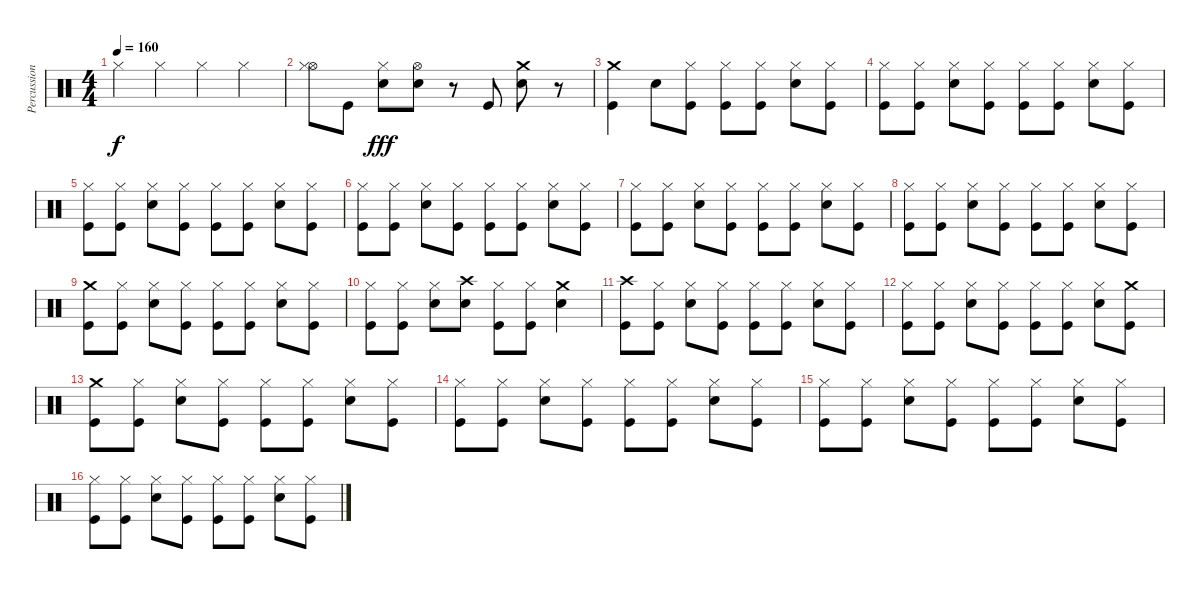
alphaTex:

\track ("Percussions" "Percussion") {instrument percussion}
\staff {score}
\articulation defaults
\ts (4 4)
\tempo 160
\clef neutral
\ks c "Hi-Hat (closed)".4{dy f} "Hi-Hat (closed)".4 "Hi-Hat (closed)".4 "Hi-Hat (closed)".4
|
("Hi-Hat (open)" "Hi-Hat (closed)").8 "Kick (hit)".8 ("Hi-Hat (closed)" "Electric Snare (hit)").8{dy fff} ("Hi-Hat (open)" "Electric Snare (hit)").8 r.8 "Kick (hit)".8 ("Crash medium (hit)" "Electric Snare (hit)").8 r.8 |
("Crash medium (hit)" "Kick (hit)").4 "Electric Snare (hit)".8 ("Hi-Hat (closed)" "Kick (hit)").8 ("Hi-Hat (closed)" "Kick (hit)").8 ("Hi-Hat (closed)" "Kick (hit)").8 ("Hi-Hat (closed)" "Electric Snare (hit)").8 ("Hi-Hat (closed)" "Kick (hit)").8 |
("Hi-Hat (closed)" "Kick (hit)").8 ("Hi-Hat (closed)" "Kick (hit)").8 ("Hi-Hat (closed)" "Electric Snare (hit)").8 ("Hi-Hat (closed)" "Kick (hit)").8 ("Hi-Hat (closed)" "Kick (hit)").8 ("Hi-Hat (closed)" "Kick (hit)").8 ("Hi-Hat (closed)" "Electric Snare (hit)").8 ("Hi-Hat (closed)" "Kick (hit)").8 |
("Hi-Hat (closed)" "Kick (hit)").8 ("Hi-Hat (closed)" "Kick (hit)").8 ("Hi-Hat (closed)" "Electric Snare (hit)").8 ("Hi-Hat (closed)" "Kick (hit)").8 ("Hi-Hat (closed)" "Kick (hit)").8 ("Hi-Hat (closed)" "Kick (hit)").8 ("Hi-Hat (closed)" "Electric Snare (hit)").8 ("Hi-Hat (closed)" "Kick (hit)").8 |
("Hi-Hat (closed)" "Kick (hit)").8 ("Hi-Hat (closed)" "Kick (hit)").8 ("Hi-Hat (closed)" "Electric Snare (hit)").8 ("Hi-Hat (closed)" "Kick (hit)").8 ("Hi-Hat (closed)" "Kick (hit)").8 ("Hi-Hat (closed)" "Kick (hit)").8 ("Hi-Hat (closed)" "Electric Snare (hit)").8 ("Hi-Hat (closed)" "Kick (hit)").8 |
("Hi-Hat (closed)" "Kick (hit)").8 ("Hi-Hat (closed)" "Kick (hit)").8 ("Hi-Hat (closed)" "Electric Snare (hit)").8 ("Hi-Hat (closed)" "Kick (hit)").8 ("Hi-Hat (closed)" "Kick (hit)").8 ("Hi-Hat (closed)" "Kick (hit)").8 ("Hi-Hat (closed)" "Electric Snare (hit)").8 ("Hi-Hat (closed)" "Kick (hit)").8 |
("Hi-Hat (closed)" "Kick (hit)").8 ("Hi-Hat (closed)" "Kick (hit)").8 ("Hi-Hat (closed)" "Electric Snare (hit)").8 ("Hi-Hat (closed)" "Kick (hit)").8 ("Hi-Hat (closed)" "Kick (hit)").8 ("Hi-Hat (closed)" "Kick (hit)").8 ("Hi-Hat (closed)" "Electric Snare (hit)").8 ("Hi-Hat (closed)" "Kick (hit)").8 |
("Crash medium (hit)" "Kick (hit)").8 ("Hi-Hat (closed)" "Kick (hit)").8 ("Hi-Hat (closed)" "Electric Snare (hit)").8 ("Hi-Hat (closed)" "Kick (hit)").8 ("Hi-Hat (closed)" "Kick (hit)").8 ("Hi-Hat (closed)" "Kick (hit)").8 ("Hi-Hat (closed)" "Electric Snare (hit)").8 ("Hi-Hat (closed)" "Kick (hit)").8 |
("Hi-Hat (closed)" "Kick (hit)").8 ("Hi-Hat (closed)" "Kick (hit)").8 ("Hi-Hat (closed)" "Electric Snare (hit)").8 ("Crash high (hit)" "Electric Snare (hit)").8 ("Hi-Hat (closed)" "Kick (hit)").8 ("Hi-Hat (closed)" "Kick (hit)").8 ("Crash medium (hit)" "Electric Snare (hit)").4 |
("Crash high (hit)" "Kick (hit)").8 ("Hi-Hat (closed)" "Kick (hit)").8 ("Hi-Hat (closed)" "Electric Snare (hit)").8 ("Hi-Hat (closed)" "Kick (hit)").8 ("Hi-Hat (closed)" "Kick (hit)").8 ("Hi-Hat (closed)" "Kick (hit)").8 ("Hi-Hat (closed)" "Electric Snare (hit)").8 ("Hi-Hat (closed)" "Kick (hit)").8 |
("Hi-Hat (closed)" "Kick (hit)").8 ("Hi-Hat (closed)" "Kick (hit)").8 ("Hi-Hat (closed)" "Electric Snare (hit)").8 ("Hi-Hat (closed)" "Kick (hit)").8 ("Hi-Hat (closed)" "Kick (hit)").8 ("Hi-Hat (closed)" "Kick (hit)").8 ("Hi-Hat (closed)" "Electric Snare (hit)").8 ("Crash medium (hit)" "Kick (hit)").8 |
("Crash medium (hit)" "Kick (hit)").8 ("Hi-Hat (closed)" "Kick (hit)").8 ("Hi-Hat (closed)" "Electric Snare (hit)").8 ("Hi-Hat (closed)" "Kick (hit)").8 ("Hi-Hat (closed)" "Kick (hit)").8 ("Hi-Hat (closed)" "Kick (hit)").8 ("Hi-Hat (closed)" "Electric Snare (hit)").8 ("Hi-Hat (closed)" "Kick (hit)").8 |
("Hi-Hat (closed)" "Kick (hit)").8 ("Hi-Hat (closed)" "Kick (hit)").8 ("Hi-Hat (closed)" "Electric Snare (hit)").8 ("Hi-Hat (closed)" "Kick (hit)").8 ("Hi-Hat (closed)" "Kick (hit)").8 ("Hi-Hat (closed)" "Kick (hit)").8 ("Hi-Hat (closed)" "Electric Snare (hit)").8 ("Hi-Hat (closed)" "Kick (hit)").8 |
("Hi-Hat (closed)" "Kick (hit)").8 ("Hi-Hat (closed)" "Kick (hit)").8 ("Hi-Hat (closed)" "Electric Snare (hit)").8 ("Hi-Hat (closed)" "Kick (hit)").8 ("Hi-Hat (closed)" "Kick (hit)").8 ("Hi-Hat (closed)" "Kick (hit)").8 ("Hi-Hat (closed)" "Electric Snare (hit)").8 ("Hi-Hat (closed)" "Kick (hit)").8 |
("Hi-Hat (closed)" "Kick (hit)").8 ("Hi-Hat (closed)" "Kick (hit)").8 ("Hi-Hat (closed)" "Electric Snare (hit)").8 ("Hi-Hat (closed)" "Kick (hit)").8 ("Hi-Hat (closed)" "Kick (hit)").8 ("Hi-Hat (closed)" "Kick (hit)").8 ("Hi-Hat (closed)" "Electric Snare (hit)").8 ("Hi-Hat (closed)" "Kick (hit)").8
